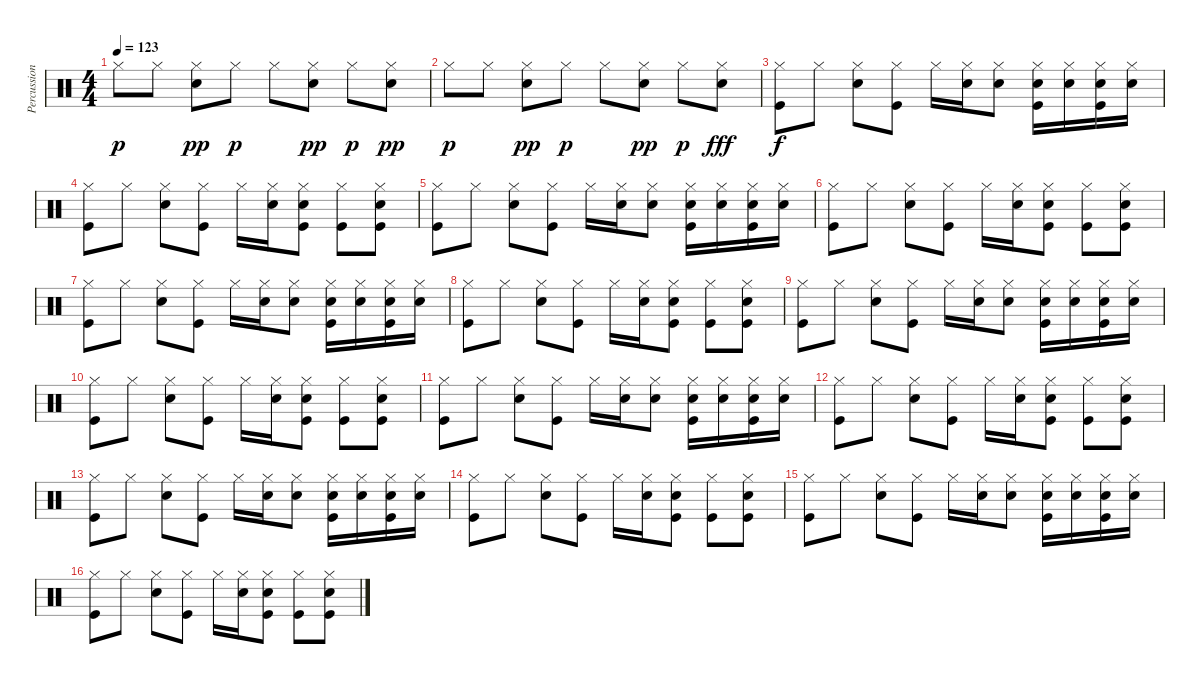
\track ("Percussion" "Percussion") {instrument percussion}
\staff {score}
\articulation defaults
\ts (4 4)
\tempo 123
\clef neutral
\ks c "Hi-Hat (closed)".8{dy p} "Hi-Hat (closed)".8
("Hi-Hat (closed)" "Snare (hit) 2").8{dy pp} "Hi-Hat (closed)".8{dy p} "Hi-Hat (closed)".8 ("Hi-Hat (closed)" "Snare (hit) 2").8{dy pp} "Hi-Hat (closed)".8{dy p} ("Hi-Hat (closed)" "Snare (hit) 2").8{dy pp} |
"Hi-Hat (closed)".8{dy p} "Hi-Hat (closed)".8 ("Hi-Hat (closed)" "Snare (hit) 2").8{dy pp} "Hi-Hat (closed)".8{dy p} "Hi-Hat (closed)".8 ("Hi-Hat (closed)" "Snare (hit) 2").8{dy pp} "Hi-Hat (closed)".8{dy p} ("Hi-Hat (closed)" "Snare (hit) 2").8{dy fff} |
("Hi-Hat (closed)" "Kick (hit)").8{dy f} "Hi-Hat (closed)".8 ("Hi-Hat (closed)" "Snare (hit) 2").8 ("Hi-Hat (closed)" "Kick (hit)").8 "Hi-Hat (closed)".16 ("Hi-Hat (closed)" "Snare (hit) 2").16 ("Hi-Hat (closed)" "Snare (hit) 2").8 ("Hi-Hat (closed)" "Snare (hit) 2" "Kick (hit)").16 ("Hi-Hat (closed)" "Snare (hit) 2").16 ("Hi-Hat (closed)" "Snare (hit) 2" "Kick (hit)").16 ("Hi-Hat (closed)" "Snare (hit) 2").16 |
("Hi-Hat (closed)" "Kick (hit)").8 "Hi-Hat (closed)".8 ("Hi-Hat (closed)" "Snare (hit) 2").8 ("Hi-Hat (closed)" "Kick (hit)").8 "Hi-Hat (closed)".16 ("Hi-Hat (closed)" "Snare (hit) 2").16 ("Hi-Hat (closed)" "Snare (hit) 2" "Kick (hit)").8 ("Hi-Hat (closed)" "Kick (hit)").8 ("Hi-Hat (closed)" "Snare (hit) 2" "Kick (hit)").8 |
("Hi-Hat (closed)" "Kick (hit)").8 "Hi-Hat (closed)".8 ("Hi-Hat (closed)" "Snare (hit) 2").8 ("Hi-Hat (closed)" "Kick (hit)").8 "Hi-Hat (closed)".16 ("Hi-Hat (closed)" "Snare (hit) 2").16 ("Hi-Hat (closed)" "Snare (hit) 2").8 ("Hi-Hat (closed)" "Snare (hit) 2" "Kick (hit)").16 ("Hi-Hat (closed)" "Snare (hit) 2").16 ("Hi-Hat (closed)" "Snare (hit) 2" "Kick (hit)").16 ("Hi-Hat (closed)" "Snare (hit) 2").16 |
("Hi-Hat (closed)" "Kick (hit)").8 "Hi-Hat (closed)".8 ("Hi-Hat (closed)" "Snare (hit) 2").8 ("Hi-Hat (closed)" "Kick (hit)").8 "Hi-Hat (closed)".16 ("Hi-Hat (closed)" "Snare (hit) 2").16 ("Hi-Hat (closed)" "Snare (hit) 2" "Kick (hit)").8 ("Hi-Hat (closed)" "Kick (hit)").8 ("Hi-Hat (closed)" "Snare (hit) 2" "Kick (hit)").8 |
("Hi-Hat (closed)" "Kick (hit)").8 "Hi-Hat (closed)".8 ("Hi-Hat (closed)" "Snare (hit) 2").8 ("Hi-Hat (closed)" "Kick (hit)").8 "Hi-Hat (closed)".16 ("Hi-Hat (closed)" "Snare (hit) 2").16 ("Hi-Hat (closed)" "Snare (hit) 2").8 ("Hi-Hat (closed)" "Snare (hit) 2" "Kick (hit)").16 ("Hi-Hat (closed)" "Snare (hit) 2").16 ("Hi-Hat (closed)" "Snare (hit) 2" "Kick (hit)").16 ("Hi-Hat (closed)" "Snare (hit) 2").16 |
("Hi-Hat (closed)" "Kick (hit)").8 "Hi-Hat (closed)".8 ("Hi-Hat (closed)" "Snare (hit) 2").8 ("Hi-Hat (closed)" "Kick (hit)").8 "Hi-Hat (closed)".16 ("Hi-Hat (closed)" "Snare (hit) 2").16 ("Hi-Hat (closed)" "Snare (hit) 2" "Kick (hit)").8 ("Hi-Hat (closed)" "Kick (hit)").8 ("Hi-Hat (closed)" "Snare (hit) 2" "Kick (hit)").8 |
("Hi-Hat (closed)" "Kick (hit)").8 "Hi-Hat (closed)".8 ("Hi-Hat (closed)" "Snare (hit) 2").8 ("Hi-Hat (closed)" "Kick (hit)").8 "Hi-Hat (closed)".16 ("Hi-Hat (closed)" "Snare (hit) 2").16 ("Hi-Hat (closed)" "Snare (hit) 2").8 ("Hi-Hat (closed)" "Snare (hit) 2" "Kick (hit)").16 ("Hi-Hat (closed)" "Snare (hit) 2").16 ("Hi-Hat (closed)" "Snare (hit) 2" "Kick (hit)").16 ("Hi-Hat (closed)" "Snare (hit) 2").16 |
("Hi-Hat (closed)" "Kick (hit)").8 "Hi-Hat (closed)".8 ("Hi-Hat (closed)" "Snare (hit) 2").8 ("Hi-Hat (closed)" "Kick (hit)").8 "Hi-Hat (closed)".16 ("Hi-Hat (closed)" "Snare (hit) 2").16 ("Hi-Hat (closed)" "Snare (hit) 2" "Kick (hit)").8 ("Hi-Hat (closed)" "Kick (hit)").8 ("Hi-Hat (closed)" "Snare (hit) 2" "Kick (hit)").8 |
("Hi-Hat (closed)" "Kick (hit)").8 "Hi-Hat (closed)".8 ("Hi-Hat (closed)" "Snare (hit) 2").8 ("Hi-Hat (closed)" "Kick (hit)").8 "Hi-Hat (closed)".16 ("Hi-Hat (closed)" "Snare (hit) 2").16 ("Hi-Hat (closed)" "Snare (hit) 2").8 ("Hi-Hat (closed)" "Snare (hit) 2" "Kick (hit)").16 ("Hi-Hat (closed)" "Snare (hit) 2").16 ("Hi-Hat (closed)" "Snare (hit) 2" "Kick (hit)").16 ("Hi-Hat (closed)" "Snare (hit) 2").16 |
("Hi-Hat (closed)" "Kick (hit)").8 "Hi-Hat (closed)".8 ("Hi-Hat (closed)" "Snare (hit) 2").8 ("Hi-Hat (closed)" "Kick (hit)").8 "Hi-Hat (closed)".16 ("Hi-Hat (closed)" "Snare (hit) 2").16 ("Hi-Hat (closed)" "Snare (hit) 2" "Kick (hit)").8 ("Hi-Hat (closed)" "Kick (hit)").8 ("Hi-Hat (closed)" "Snare (hit) 2" "Kick (hit)").8 |
("Hi-Hat (closed)" "Kick (hit)").8 "Hi-Hat (closed)".8 ("Hi-Hat (closed)" "Snare (hit) 2").8 ("Hi-Hat (closed)" "Kick (hit)").8 "Hi-Hat (closed)".16 ("Hi-Hat (closed)" "Snare (hit) 2").16 ("Hi-Hat (closed)" "Snare (hit) 2").8 ("Hi-Hat (closed)" "Snare (hit) 2" "Kick (hit)").16 ("Hi-Hat (closed)" "Snare (hit) 2").16 ("Hi-Hat (closed)" "Snare (hit) 2" "Kick (hit)").16 ("Hi-Hat (closed)" "Snare (hit) 2").16 |
("Hi-Hat (closed)" "Kick (hit)").8 "Hi-Hat (closed)".8 ("Hi-Hat (closed)" "Snare (hit) 2").8 ("Hi-Hat (closed)" "Kick (hit)").8 "Hi-Hat (closed)".16 ("Hi-Hat (closed)" "Snare (hit) 2").16 ("Hi-Hat (closed)" "Snare (hit) 2" "Kick (hit)").8 ("Hi-Hat (closed)" "Kick (hit)").8 ("Hi-Hat (closed)" "Snare (hit) 2" "Kick (hit)").8 |
("Hi-Hat (closed)" "Kick (hit)").8 "Hi-Hat (closed)".8 ("Hi-Hat (closed)" "Snare (hit) 2").8 ("Hi-Hat (closed)" "Kick (hit)").8 "Hi-Hat (closed)".16 ("Hi-Hat (closed)" "Snare (hit) 2").16 ("Hi-Hat (closed)" "Snare (hit) 2").8 ("Hi-Hat (closed)" "Snare (hit) 2" "Kick (hit)").16 ("Hi-Hat (closed)" "Snare (hit) 2").16 ("Hi-Hat (closed)" "Snare (hit) 2" "Kick (hit)").16 ("Hi-Hat (closed)" "Snare (hit) 2").16 |
("Hi-Hat (closed)" "Kick (hit)").8 "Hi-Hat (closed)".8 ("Hi-Hat (closed)" "Snare (hit) 2").8 ("Hi-Hat (closed)" "Kick (hit)").8 "Hi-Hat (closed)".16 ("Hi-Hat (closed)" "Snare (hit) 2").16 ("Hi-Hat (closed)" "Snare (hit) 2" "Kick (hit)").8 ("Hi-Hat (closed)" "Kick (hit)").8 ("Hi-Hat (closed)" "Snare (hit) 2" "Kick (hit)").8
